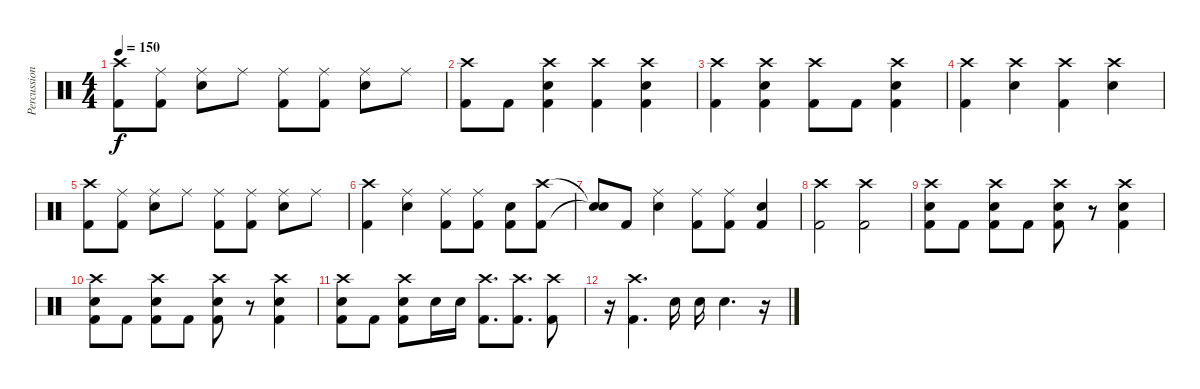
\track ("Percussion" "Percussion") {instrument percussion}
\staff {score}
\articulation defaults
\ts (4 4)
\tempo 150
\clef neutral
\ks c
("Crash high (hit)" "Kick (hit) 2").8{dy f} ("Ride (middle)" "Kick (hit) 2").8 ("Ride (middle)" "Electric Snare (hit)").8 "Ride (middle)".8 ("Ride (middle)" "Kick (hit) 2").8 ("Ride (middle)" "Kick (hit) 2").8 ("Ride (middle)" "Electric Snare (hit)").8 "Ride (middle)".8 |
("Crash high (hit)" "Kick (hit) 2").8 "Kick (hit) 2".8 ("Crash high (hit)" "Electric Snare (hit)" "Kick (hit) 2").4 ("Crash high (hit)" "Kick (hit) 2").4 ("Crash high (hit)" "Electric Snare (hit)" "Kick (hit) 2").4 |
("Crash high (hit)" "Kick (hit) 2").4 ("Crash high (hit)" "Electric Snare (hit)" "Kick (hit) 2").4 ("Crash high (hit)" "Kick (hit) 2").8 "Kick (hit) 2".8 ("Crash high (hit)" "Electric Snare (hit)" "Kick (hit) 2").4 |
("Crash high (hit)" "Kick (hit) 2").4 ("Crash high (hit)" "Electric Snare (hit)").4 ("Crash high (hit)" "Kick (hit) 2").4 ("Crash high (hit)" "Electric Snare (hit)").4 |
("Crash high (hit)" "Kick (hit) 2").8 ("Ride (middle)" "Kick (hit) 2").8 ("Ride (middle)" "Electric Snare (hit)").8 "Ride (middle)".8 ("Ride (middle)" "Kick (hit) 2").8 ("Ride (middle)" "Kick (hit) 2").8 ("Ride (middle)" "Electric Snare (hit)").8 "Ride (middle)".8 |
("Crash high (hit)" "Kick (hit) 2").4 ("Ride (middle)" "Electric Snare (hit)").4 ("Ride (middle)" "Kick (hit) 2").8 ("Ride (middle)" "Kick (hit) 2").8 ("Electric Snare (hit)" "Kick (hit) 2").8 ("Crash high (hit)" "Kick (hit) 2").8 |
("Snare (hit)"{t} "Snare (hit)"{t}).8 "Kick (hit) 2".8 ("Ride (middle)" "Electric Snare (hit)").4 ("Ride (middle)" "Kick (hit) 2").8 ("Ride (middle)" "Kick (hit) 2").8 ("Electric Snare (hit)" "Kick (hit) 2").4 |
("Crash high (hit)" "Kick (hit) 2").2 ("Crash high (hit)" "Kick (hit) 2").2 |
("Crash high (hit)" "Electric Snare (hit)" "Kick (hit) 2").8 "Kick (hit) 2".8 ("Crash high (hit)" "Electric Snare (hit)" "Kick (hit) 2").8 "Kick (hit) 2".8 ("Crash high (hit)" "Electric Snare (hit)" "Kick (hit) 2").8 r.8 ("Crash high (hit)" "Electric Snare (hit)" "Kick (hit) 2").4 |
("Crash high (hit)" "Electric Snare (hit)" "Kick (hit) 2").8 "Kick (hit) 2".8 ("Crash high (hit)" "Electric Snare (hit)" "Kick (hit) 2").8 "Kick (hit) 2".8 ("Crash high (hit)" "Electric Snare (hit)" "Kick (hit) 2").8 r.8 ("Crash high (hit)" "Electric Snare (hit)" "Kick (hit) 2").4 |
("Crash high (hit)" "Electric Snare (hit)" "Kick (hit) 2").8 "Kick (hit) 2".8 ("Crash high (hit)" "Electric Snare (hit)" "Kick (hit) 2").8 "Electric Snare (hit)".16 "Electric Snare (hit)".16 ("Crash high (hit)" "Kick (hit) 2").8{d} ("Crash high (hit)" "Kick (hit) 2").8{d} ("Crash high (hit)" "Kick (hit) 2").8 |
r.16 ("Crash high (hit)" "Kick (hit) 2").4{d} "Electric Snare (hit)".16 "Electric Snare (hit)".16 "Electric Snare (hit)".4{d} r.16
